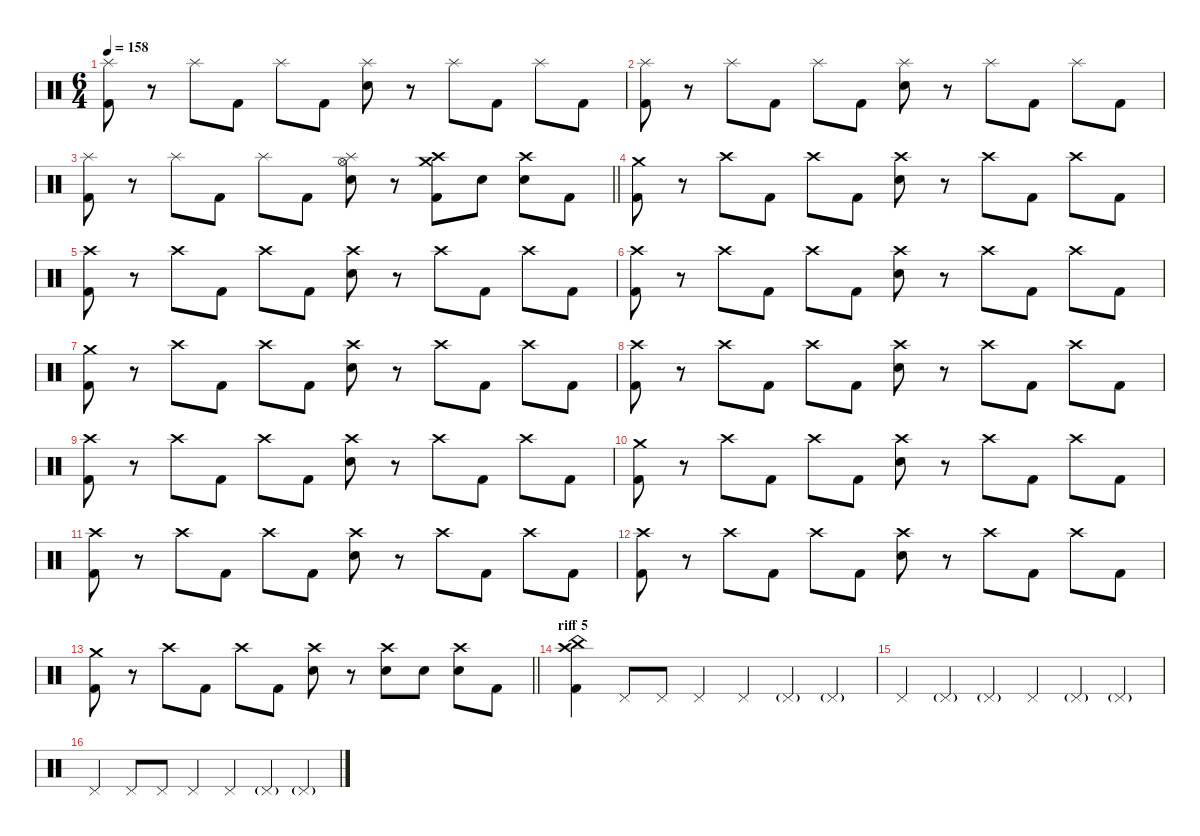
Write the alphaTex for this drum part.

\defaultSystemsLayout 4
\hideDynamics
\bracketExtendMode nobrackets
\singleTrackTrackNamePolicy hidden
\multiTrackTrackNamePolicy hidden
\firstSystemTrackNameMode fullname
\firstSystemTrackNameOrientation horizontal
\otherSystemsTrackNameOrientation horizontal
\track ("Drums" "drm.") {defaultSystemsLayout 4 instrument percussion}
\staff {score}
\articulation defaults
\ts (6 4)
\tempo 158
\clef neutral
\ks c
("Splash (hit)" "Kick (hit) 2").8{dy f beam Down} r.8{beam Down} "Splash (hit)".8{beam Down} "Kick (hit) 2".8{beam Down} "Splash (hit)".8{beam Down} "Kick (hit) 2".8{beam Down} ("Splash (hit)" "Snare (hit) 2").8{beam Down} r.8{beam Down} "Splash (hit)".8{beam Down} "Kick (hit) 2".8{beam Down} "Splash (hit)".8{beam Down} "Kick (hit) 2".8{beam Down} |
("Splash (hit)" "Kick (hit) 2").8{beam Down} r.8{beam Down} "Splash (hit)".8{beam Down} "Kick (hit) 2".8{beam Down} "Splash (hit)".8{beam Down} "Kick (hit) 2".8{beam Down} ("Splash (hit)" "Snare (hit) 2").8{beam Down} r.8{beam Down} "Splash (hit)".8{beam Down} "Kick (hit) 2".8{beam Down} "Splash (hit)".8{beam Down} "Kick (hit) 2".8{beam Down} |
\barLineRight lightlight
("Splash (hit)" "Kick (hit) 2").8{beam Down} r.8{beam Down} "Splash (hit)".8{beam Down} "Kick (hit) 2".8{beam Down} "Splash (hit)".8{beam Down} "Kick (hit) 2".8{beam Down} ("Hi-Hat (open)" "Splash (hit)" "Snare (hit) 2").8{beam Down} r.8{beam Down} ("Crash high (hit)" "Crash medium (hit)" "Kick (hit) 2").8{beam Down} "Snare (hit) 2".8{beam Down} ("Crash high (hit)" "Snare (hit) 2").8{beam Down} "Kick (hit) 2".8{beam Down} |
("Crash medium (hit)" "Kick (hit) 2").8{beam Down} r.8{beam Down} "Crash high (hit)".8{beam Down} "Kick (hit) 2".8{beam Down} "Crash high (hit)".8{beam Down} "Kick (hit) 2".8{beam Down} ("Crash high (hit)" "Snare (hit) 2").8{beam Down} r.8{beam Down} "Crash high (hit)".8{beam Down} "Kick (hit) 2".8{beam Down} "Crash high (hit)".8{beam Down} "Kick (hit) 2".8{beam Down} |
("Crash high (hit)" "Kick (hit) 2").8{beam Down} r.8{beam Down} "Crash high (hit)".8{beam Down} "Kick (hit) 2".8{beam Down} "Crash high (hit)".8{beam Down} "Kick (hit) 2".8{beam Down} ("Crash high (hit)" "Snare (hit) 2").8{beam Down} r.8{beam Down} "Crash high (hit)".8{beam Down} "Kick (hit) 2".8{beam Down} "Crash high (hit)".8{beam Down} "Kick (hit) 2".8{beam Down} |
("Crash high (hit)" "Kick (hit) 2").8{beam Down} r.8{beam Down} "Crash high (hit)".8{beam Down} "Kick (hit) 2".8{beam Down} "Crash high (hit)".8{beam Down} "Kick (hit) 2".8{beam Down} ("Crash high (hit)" "Snare (hit) 2").8{beam Down} r.8{beam Down} "Crash high (hit)".8{beam Down} "Kick (hit) 2".8{beam Down} "Crash high (hit)".8{beam Down} "Kick (hit) 2".8{beam Down} |
("Crash medium (hit)" "Kick (hit) 2").8{beam Down} r.8{beam Down} "Crash high (hit)".8{beam Down} "Kick (hit) 2".8{beam Down} "Crash high (hit)".8{beam Down} "Kick (hit) 2".8{beam Down} ("Crash high (hit)" "Snare (hit) 2").8{beam Down} r.8{beam Down} "Crash high (hit)".8{beam Down} "Kick (hit) 2".8{beam Down} "Crash high (hit)".8{beam Down} "Kick (hit) 2".8{beam Down} |
("Crash high (hit)" "Kick (hit) 2").8{beam Down} r.8{beam Down} "Crash high (hit)".8{beam Down} "Kick (hit) 2".8{beam Down} "Crash high (hit)".8{beam Down} "Kick (hit) 2".8{beam Down} ("Crash high (hit)" "Snare (hit) 2").8{beam Down} r.8{beam Down} "Crash high (hit)".8{beam Down} "Kick (hit) 2".8{beam Down} "Crash high (hit)".8{beam Down} "Kick (hit) 2".8{beam Down} |
("Crash high (hit)" "Kick (hit) 2").8{beam Down} r.8{beam Down} "Crash high (hit)".8{beam Down} "Kick (hit) 2".8{beam Down} "Crash high (hit)".8{beam Down} "Kick (hit) 2".8{beam Down} ("Crash high (hit)" "Snare (hit) 2").8{beam Down} r.8{beam Down} "Crash high (hit)".8{beam Down} "Kick (hit) 2".8{beam Down} "Crash high (hit)".8{beam Down} "Kick (hit) 2".8{beam Down} |
("Crash medium (hit)" "Kick (hit) 2").8{beam Down} r.8{beam Down} "Crash high (hit)".8{beam Down} "Kick (hit) 2".8{beam Down} "Crash high (hit)".8{beam Down} "Kick (hit) 2".8{beam Down} ("Crash high (hit)" "Snare (hit) 2").8{beam Down} r.8{beam Down} "Crash high (hit)".8{beam Down} "Kick (hit) 2".8{beam Down} "Crash high (hit)".8{beam Down} "Kick (hit) 2".8{beam Down} |
("Crash high (hit)" "Kick (hit) 2").8{beam Down} r.8{beam Down} "Crash high (hit)".8{beam Down} "Kick (hit) 2".8{beam Down} "Crash high (hit)".8{beam Down} "Kick (hit) 2".8{beam Down} ("Crash high (hit)" "Snare (hit) 2").8{beam Down} r.8{beam Down} "Crash high (hit)".8{beam Down} "Kick (hit) 2".8{beam Down} "Crash high (hit)".8{beam Down} "Kick (hit) 2".8{beam Down} |
("Crash high (hit)" "Kick (hit) 2").8{beam Down} r.8{beam Down} "Crash high (hit)".8{beam Down} "Kick (hit) 2".8{beam Down} "Crash high (hit)".8{beam Down} "Kick (hit) 2".8{beam Down} ("Crash high (hit)" "Snare (hit) 2").8{beam Down} r.8{beam Down} "Crash high (hit)".8{beam Down} "Kick (hit) 2".8{beam Down} "Crash high (hit)".8{beam Down} "Kick (hit) 2".8{beam Down} |
\barLineRight lightlight
("Crash medium (hit)" "Kick (hit) 2").8{beam Down} r.8{beam Down} "Crash high (hit)".8{beam Down} "Kick (hit) 2".8{beam Down} "Crash high (hit)".8{beam Down} "Kick (hit) 2".8{beam Down} ("Crash high (hit)" "Snare (hit) 2").8{beam Down} r.8{beam Down} ("Crash high (hit)" "Snare (hit) 2").8{beam Down} "Snare (hit) 2".8{beam Down} ("Crash high (hit)" "Snare (hit) 2").8{beam Down} "Kick (hit) 2".8{beam Down} |
\section ("" "riff 5")
("China (hit)" "Crash high (hit)" "Kick (hit) 2").4{beam Down} "Pedal Hi-Hat (hit)".8{beam Up} "Pedal Hi-Hat (hit)".8{beam Up} "Pedal Hi-Hat (hit)".4{beam Up} "Pedal Hi-Hat (hit)".4{beam Up} "Pedal Hi-Hat (hit)"{g}.4{dy mf beam Up} "Pedal Hi-Hat (hit)"{g}.4{beam Up} |
"Pedal Hi-Hat (hit)".4{dy f beam Up} "Pedal Hi-Hat (hit)"{g}.4{dy mf beam Up} "Pedal Hi-Hat (hit)"{g}.4{beam Up} "Pedal Hi-Hat (hit)".4{dy f beam Up} "Pedal Hi-Hat (hit)"{g}.4{dy mf beam Up} "Pedal Hi-Hat (hit)"{g}.4{beam Up} |
"Pedal Hi-Hat (hit)".4{dy f beam Up} "Pedal Hi-Hat (hit)".8{beam Up} "Pedal Hi-Hat (hit)".8{beam Up} "Pedal Hi-Hat (hit)".4{beam Up} "Pedal Hi-Hat (hit)".4{beam Up} "Pedal Hi-Hat (hit)"{g}.4{dy mf beam Up} "Pedal Hi-Hat (hit)"{g}.4{beam Up}
